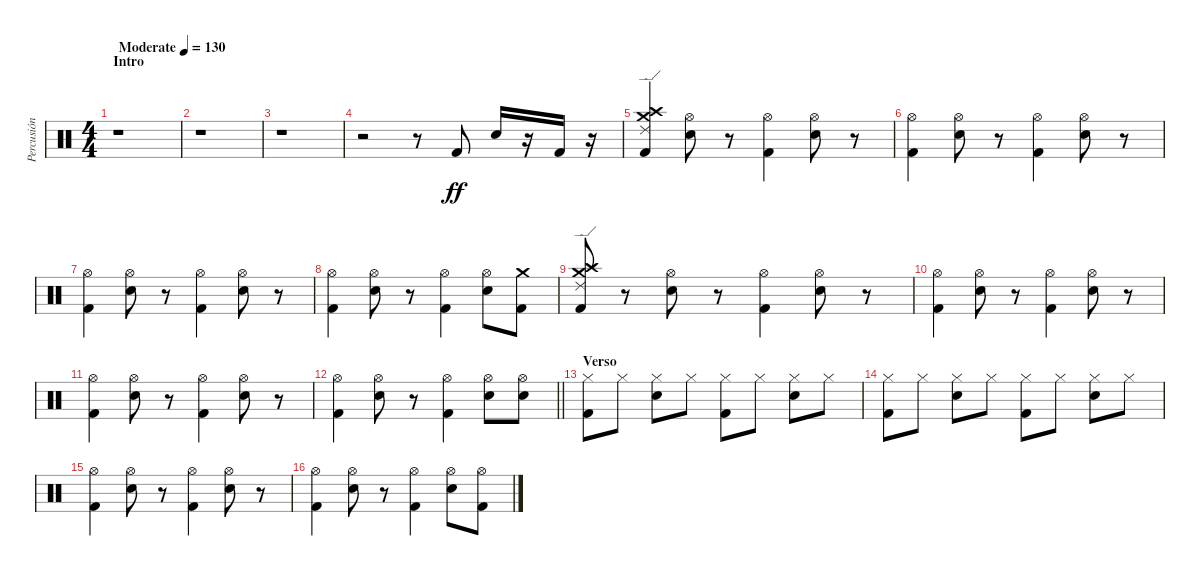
\track ("Percusión" "Percusión") {instrument percussion}
\staff {score}
\articulation defaults
\ts (4 4)
\section ("" "Intro")
\tempo (130 "Moderate")
\clef neutral
\ks c
r.1{dy ff} |
r.1 |
r.1 |
r.2 r.8 "Kick (hit) 2".8 "Snare (hit) 2".16 r.16 "Kick (hit) 2".16 r.16 |
("Kick (hit) 2" "Crash high (hit)" "Crash medium (hit)" "Ride (edge) 2").4 ("Snare (hit) 2" "Hi-Hat (open)").8 r.8 ("Kick (hit) 2" "Hi-Hat (open)").4 ("Snare (hit) 2" "Hi-Hat (open)").8 r.8 |
("Kick (hit) 2" "Hi-Hat (open)").4 ("Snare (hit) 2" "Hi-Hat (open)").8 r.8 ("Kick (hit) 2" "Hi-Hat (open)").4 ("Snare (hit) 2" "Hi-Hat (open)").8 r.8 |
("Kick (hit) 2" "Hi-Hat (open)").4 ("Snare (hit) 2" "Hi-Hat (open)").8 r.8 ("Kick (hit) 2" "Hi-Hat (open)").4 ("Snare (hit) 2" "Hi-Hat (open)").8 r.8 |
("Kick (hit) 2" "Hi-Hat (open)").4 ("Snare (hit) 2" "Hi-Hat (open)").8 r.8 ("Kick (hit) 2" "Hi-Hat (open)").4 ("Snare (hit) 2" "Hi-Hat (open)").8 ("Kick (hit) 2" "Crash medium (hit)").8 |
("Kick (hit) 2" "Crash high (hit)" "Crash medium (hit)" "Ride (edge) 2").8 r.8 ("Snare (hit) 2" "Hi-Hat (open)").8 r.8 ("Kick (hit) 2" "Hi-Hat (open)").4 ("Snare (hit) 2" "Hi-Hat (open)").8 r.8 |
("Kick (hit) 2" "Hi-Hat (open)").4 ("Snare (hit) 2" "Hi-Hat (open)").8 r.8 ("Kick (hit) 2" "Hi-Hat (open)").4 ("Snare (hit) 2" "Hi-Hat (open)").8 r.8 |
("Kick (hit) 2" "Hi-Hat (open)").4 ("Snare (hit) 2" "Hi-Hat (open)").8 r.8 ("Kick (hit) 2" "Hi-Hat (open)").4 ("Snare (hit) 2" "Hi-Hat (open)").8 r.8 |
\barLineRight lightlight
("Kick (hit) 2" "Hi-Hat (open)").4 ("Snare (hit) 2" "Hi-Hat (open)").8 r.8 ("Kick (hit) 2" "Hi-Hat (open)").4 ("Snare (hit) 2" "Hi-Hat (open)").8 ("Snare (hit) 2" "Hi-Hat (open)").8 |
\section ("" "Verso")
("Kick (hit) 2" "Hi-Hat (closed)").8 "Hi-Hat (closed)".8 ("Snare (hit) 2" "Hi-Hat (closed)").8 "Hi-Hat (closed)".8 ("Kick (hit) 2" "Hi-Hat (closed)").8 "Hi-Hat (closed)".8 ("Snare (hit) 2" "Hi-Hat (closed)").8 "Hi-Hat (closed)".8 |
("Kick (hit) 2" "Hi-Hat (closed)").8 "Hi-Hat (closed)".8 ("Snare (hit) 2" "Hi-Hat (closed)").8 "Hi-Hat (closed)".8 ("Kick (hit) 2" "Hi-Hat (closed)").8 "Hi-Hat (closed)".8 ("Snare (hit) 2" "Hi-Hat (closed)").8 "Hi-Hat (closed)".8 |
("Kick (hit) 2" "Hi-Hat (open)").4 ("Snare (hit) 2" "Hi-Hat (open)").8 r.8 ("Kick (hit) 2" "Hi-Hat (open)").4 ("Snare (hit) 2" "Hi-Hat (open)").8 r.8 |
("Kick (hit) 2" "Hi-Hat (open)").4 ("Snare (hit) 2" "Hi-Hat (open)").8 r.8 ("Kick (hit) 2" "Hi-Hat (open)").4 ("Snare (hit) 2" "Hi-Hat (open)").8 ("Kick (hit) 2" "Hi-Hat (open)").8
